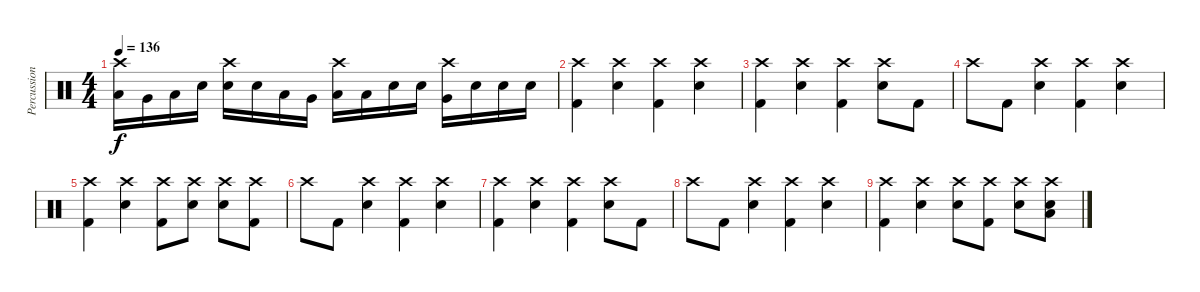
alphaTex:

\track ("Percussion" "Percussion") {instrument percussion}
\staff {score}
\articulation defaults
\ts (4 4)
\tempo 136
\clef neutral
\ks c
("Low Tom (hit)" "Crash high (hit)").16{dy f} "Very Low Tom (hit)".16 "Low Floor Tom (hit)".16 "Snare (hit) 2".16 ("Snare (hit) 2" "Crash high (hit)").16 "Snare (hit) 2".16 "Low Tom (hit)".16 "Very Low Tom (hit)".16 ("Low Floor Tom (hit)" "Crash high (hit)").16 "Low Floor Tom (hit)".16 "Snare (hit) 2".16 "Snare (hit) 2".16 ("Very Low Tom (hit)" "Crash high (hit)").16 "Snare (hit) 2".16 "Snare (hit) 2".16 "Snare (hit) 2".16 |
("Kick (hit) 2" "Crash high (hit)").4 ("Snare (hit) 2" "Crash high (hit)").4 ("Kick (hit) 2" "Crash high (hit)").4 ("Snare (hit) 2" "Crash high (hit)").4 |
("Kick (hit) 2" "Crash high (hit)").4 ("Snare (hit) 2" "Crash high (hit)").4 ("Kick (hit) 2" "Crash high (hit)").4 ("Snare (hit) 2" "Crash high (hit)").8 "Kick (hit) 2".8 |
"Crash high (hit)".8 "Kick (hit) 2".8 ("Snare (hit) 2" "Crash high (hit)").4 ("Kick (hit) 2" "Crash high (hit)").4 ("Snare (hit) 2" "Crash high (hit)").4 |
("Kick (hit) 2" "Crash high (hit)").4 ("Snare (hit) 2" "Crash high (hit)").4 ("Kick (hit) 2" "Crash high (hit)").8 ("Snare (hit) 2" "Crash high (hit)").8 ("Snare (hit) 2" "Crash high (hit)").8 ("Kick (hit) 2" "Crash high (hit)").8 |
"Crash high (hit)".8 "Kick (hit) 2".8 ("Snare (hit) 2" "Crash high (hit)").4 ("Kick (hit) 2" "Crash high (hit)").4 ("Snare (hit) 2" "Crash high (hit)").4 |
("Kick (hit) 2" "Crash high (hit)").4 ("Snare (hit) 2" "Crash high (hit)").4 ("Kick (hit) 2" "Crash high (hit)").4 ("Snare (hit) 2" "Crash high (hit)").8 "Kick (hit) 2".8 |
"Crash high (hit)".8 "Kick (hit) 2".8 ("Snare (hit) 2" "Crash high (hit)").4 ("Kick (hit) 2" "Crash high (hit)").4 ("Snare (hit) 2" "Crash high (hit)").4 |
("Kick (hit) 2" "Crash high (hit)").4 ("Snare (hit) 2" "Crash high (hit)").4 ("Snare (hit) 2" "Crash high (hit)").8 ("Kick (hit) 2" "Crash high (hit)").8 ("Snare (hit) 2" "Crash high (hit)").8 ("Snare (hit) 2" "Low Tom (hit)" "Crash high (hit)").8
